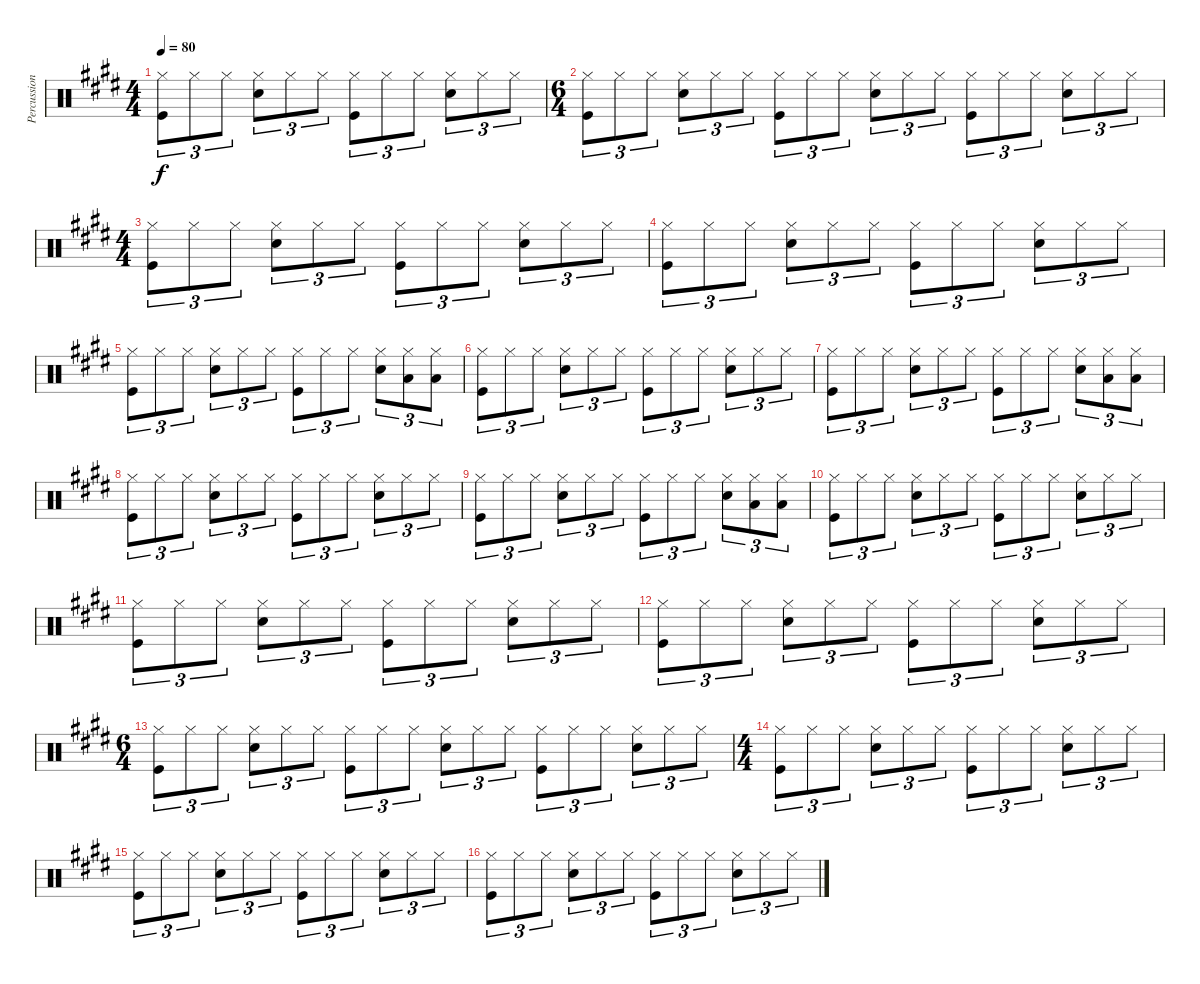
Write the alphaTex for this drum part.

\track ("Percussion" "Percussion") {instrument percussion}
\staff {score}
\articulation defaults
\ts (4 4)
\tempo 80
\clef neutral
\ks e
("Hi-Hat (closed)" "Kick (hit)").8{tu (3 2) dy f} "Hi-Hat (closed)".8{tu (3 2)} "Hi-Hat (closed)".8{tu (3 2)} ("Hi-Hat (closed)" "Snare (hit) 2").8{tu (3 2)} "Hi-Hat (closed)".8{tu (3 2)} "Hi-Hat (closed)".8{tu (3 2)} ("Hi-Hat (closed)" "Kick (hit)").8{tu (3 2)} "Hi-Hat (closed)".8{tu (3 2)} "Hi-Hat (closed)".8{tu (3 2)} ("Hi-Hat (closed)" "Snare (hit) 2").8{tu (3 2)} "Hi-Hat (closed)".8{tu (3 2)} "Hi-Hat (closed)".8{tu (3 2)} |
\ts (6 4)
("Hi-Hat (closed)" "Kick (hit)").8{tu (3 2)} "Hi-Hat (closed)".8{tu (3 2)} "Hi-Hat (closed)".8{tu (3 2)} ("Hi-Hat (closed)" "Snare (hit) 2").8{tu (3 2)} "Hi-Hat (closed)".8{tu (3 2)} "Hi-Hat (closed)".8{tu (3 2)} ("Hi-Hat (closed)" "Kick (hit)").8{tu (3 2)} "Hi-Hat (closed)".8{tu (3 2)} "Hi-Hat (closed)".8{tu (3 2)} ("Hi-Hat (closed)" "Snare (hit) 2").8{tu (3 2)} "Hi-Hat (closed)".8{tu (3 2)} "Hi-Hat (closed)".8{tu (3 2)} ("Hi-Hat (closed)" "Kick (hit)").8{tu (3 2)} "Hi-Hat (closed)".8{tu (3 2)} "Hi-Hat (closed)".8{tu (3 2)} ("Hi-Hat (closed)" "Snare (hit) 2").8{tu (3 2)} "Hi-Hat (closed)".8{tu (3 2)} "Hi-Hat (closed)".8{tu (3 2)} |
\ts (4 4)
("Hi-Hat (closed)" "Kick (hit)").8{tu (3 2)} "Hi-Hat (closed)".8{tu (3 2)} "Hi-Hat (closed)".8{tu (3 2)} ("Hi-Hat (closed)" "Snare (hit) 2").8{tu (3 2)} "Hi-Hat (closed)".8{tu (3 2)} "Hi-Hat (closed)".8{tu (3 2)} ("Hi-Hat (closed)" "Kick (hit)").8{tu (3 2)} "Hi-Hat (closed)".8{tu (3 2)} "Hi-Hat (closed)".8{tu (3 2)} ("Hi-Hat (closed)" "Snare (hit) 2").8{tu (3 2)} "Hi-Hat (closed)".8{tu (3 2)} "Hi-Hat (closed)".8{tu (3 2)} |
("Hi-Hat (closed)" "Kick (hit)").8{tu (3 2)} "Hi-Hat (closed)".8{tu (3 2)} "Hi-Hat (closed)".8{tu (3 2)} ("Hi-Hat (closed)" "Snare (hit) 2").8{tu (3 2)} "Hi-Hat (closed)".8{tu (3 2)} "Hi-Hat (closed)".8{tu (3 2)} ("Hi-Hat (closed)" "Kick (hit)").8{tu (3 2)} "Hi-Hat (closed)".8{tu (3 2)} "Hi-Hat (closed)".8{tu (3 2)} ("Hi-Hat (closed)" "Snare (hit) 2").8{tu (3 2)} "Hi-Hat (closed)".8{tu (3 2)} "Hi-Hat (closed)".8{tu (3 2)} |
("Hi-Hat (closed)" "Kick (hit)").8{tu (3 2)} "Hi-Hat (closed)".8{tu (3 2)} "Hi-Hat (closed)".8{tu (3 2)} ("Hi-Hat (closed)" "Snare (hit) 2").8{tu (3 2)} "Hi-Hat (closed)".8{tu (3 2)} "Hi-Hat (closed)".8{tu (3 2)} ("Hi-Hat (closed)" "Kick (hit)").8{tu (3 2)} "Hi-Hat (closed)".8{tu (3 2)} "Hi-Hat (closed)".8{tu (3 2)} ("Hi-Hat (closed)" "Snare (hit) 2").8{tu (3 2)} ("Hi-Hat (closed)" "Low Tom (hit)").8{tu (3 2)} ("Hi-Hat (closed)" "Low Tom (hit)").8{tu (3 2)} |
("Hi-Hat (closed)" "Kick (hit)").8{tu (3 2)} "Hi-Hat (closed)".8{tu (3 2)} "Hi-Hat (closed)".8{tu (3 2)} ("Hi-Hat (closed)" "Snare (hit) 2").8{tu (3 2)} "Hi-Hat (closed)".8{tu (3 2)} "Hi-Hat (closed)".8{tu (3 2)} ("Hi-Hat (closed)" "Kick (hit)").8{tu (3 2)} "Hi-Hat (closed)".8{tu (3 2)} "Hi-Hat (closed)".8{tu (3 2)} ("Hi-Hat (closed)" "Snare (hit) 2").8{tu (3 2)} "Hi-Hat (closed)".8{tu (3 2)} "Hi-Hat (closed)".8{tu (3 2)} |
("Hi-Hat (closed)" "Kick (hit)").8{tu (3 2)} "Hi-Hat (closed)".8{tu (3 2)} "Hi-Hat (closed)".8{tu (3 2)} ("Hi-Hat (closed)" "Snare (hit) 2").8{tu (3 2)} "Hi-Hat (closed)".8{tu (3 2)} "Hi-Hat (closed)".8{tu (3 2)} ("Hi-Hat (closed)" "Kick (hit)").8{tu (3 2)} "Hi-Hat (closed)".8{tu (3 2)} "Hi-Hat (closed)".8{tu (3 2)} ("Hi-Hat (closed)" "Snare (hit) 2").8{tu (3 2)} ("Hi-Hat (closed)" "Low Tom (hit)").8{tu (3 2)} ("Hi-Hat (closed)" "Low Tom (hit)").8{tu (3 2)} |
("Hi-Hat (closed)" "Kick (hit)").8{tu (3 2)} "Hi-Hat (closed)".8{tu (3 2)} "Hi-Hat (closed)".8{tu (3 2)} ("Hi-Hat (closed)" "Snare (hit) 2").8{tu (3 2)} "Hi-Hat (closed)".8{tu (3 2)} "Hi-Hat (closed)".8{tu (3 2)} ("Hi-Hat (closed)" "Kick (hit)").8{tu (3 2)} "Hi-Hat (closed)".8{tu (3 2)} "Hi-Hat (closed)".8{tu (3 2)} ("Hi-Hat (closed)" "Snare (hit) 2").8{tu (3 2)} "Hi-Hat (closed)".8{tu (3 2)} "Hi-Hat (closed)".8{tu (3 2)} |
("Hi-Hat (closed)" "Kick (hit)").8{tu (3 2)} "Hi-Hat (closed)".8{tu (3 2)} "Hi-Hat (closed)".8{tu (3 2)} ("Hi-Hat (closed)" "Snare (hit) 2").8{tu (3 2)} "Hi-Hat (closed)".8{tu (3 2)} "Hi-Hat (closed)".8{tu (3 2)} ("Hi-Hat (closed)" "Kick (hit)").8{tu (3 2)} "Hi-Hat (closed)".8{tu (3 2)} "Hi-Hat (closed)".8{tu (3 2)} ("Hi-Hat (closed)" "Snare (hit) 2").8{tu (3 2)} ("Hi-Hat (closed)" "Low Tom (hit)").8{tu (3 2)} ("Hi-Hat (closed)" "Low Tom (hit)").8{tu (3 2)} |
("Hi-Hat (closed)" "Kick (hit)").8{tu (3 2)} "Hi-Hat (closed)".8{tu (3 2)} "Hi-Hat (closed)".8{tu (3 2)} ("Hi-Hat (closed)" "Snare (hit) 2").8{tu (3 2)} "Hi-Hat (closed)".8{tu (3 2)} "Hi-Hat (closed)".8{tu (3 2)} ("Hi-Hat (closed)" "Kick (hit)").8{tu (3 2)} "Hi-Hat (closed)".8{tu (3 2)} "Hi-Hat (closed)".8{tu (3 2)} ("Hi-Hat (closed)" "Snare (hit) 2").8{tu (3 2)} "Hi-Hat (closed)".8{tu (3 2)} "Hi-Hat (closed)".8{tu (3 2)} |
("Hi-Hat (closed)" "Kick (hit)").8{tu (3 2)} "Hi-Hat (closed)".8{tu (3 2)} "Hi-Hat (closed)".8{tu (3 2)} ("Hi-Hat (closed)" "Snare (hit) 2").8{tu (3 2)} "Hi-Hat (closed)".8{tu (3 2)} "Hi-Hat (closed)".8{tu (3 2)} ("Hi-Hat (closed)" "Kick (hit)").8{tu (3 2)} "Hi-Hat (closed)".8{tu (3 2)} "Hi-Hat (closed)".8{tu (3 2)} ("Hi-Hat (closed)" "Snare (hit) 2").8{tu (3 2)} "Hi-Hat (closed)".8{tu (3 2)} "Hi-Hat (closed)".8{tu (3 2)} |
("Hi-Hat (closed)" "Kick (hit)").8{tu (3 2)} "Hi-Hat (closed)".8{tu (3 2)} "Hi-Hat (closed)".8{tu (3 2)} ("Hi-Hat (closed)" "Snare (hit) 2").8{tu (3 2)} "Hi-Hat (closed)".8{tu (3 2)} "Hi-Hat (closed)".8{tu (3 2)} ("Hi-Hat (closed)" "Kick (hit)").8{tu (3 2)} "Hi-Hat (closed)".8{tu (3 2)} "Hi-Hat (closed)".8{tu (3 2)} ("Hi-Hat (closed)" "Snare (hit) 2").8{tu (3 2)} "Hi-Hat (closed)".8{tu (3 2)} "Hi-Hat (closed)".8{tu (3 2)} |
\ts (6 4)
("Hi-Hat (closed)" "Kick (hit)").8{tu (3 2)} "Hi-Hat (closed)".8{tu (3 2)} "Hi-Hat (closed)".8{tu (3 2)} ("Hi-Hat (closed)" "Snare (hit) 2").8{tu (3 2)} "Hi-Hat (closed)".8{tu (3 2)} "Hi-Hat (closed)".8{tu (3 2)} ("Hi-Hat (closed)" "Kick (hit)").8{tu (3 2)} "Hi-Hat (closed)".8{tu (3 2)} "Hi-Hat (closed)".8{tu (3 2)} ("Hi-Hat (closed)" "Snare (hit) 2").8{tu (3 2)} "Hi-Hat (closed)".8{tu (3 2)} "Hi-Hat (closed)".8{tu (3 2)} ("Hi-Hat (closed)" "Kick (hit)").8{tu (3 2)} "Hi-Hat (closed)".8{tu (3 2)} "Hi-Hat (closed)".8{tu (3 2)} ("Hi-Hat (closed)" "Snare (hit) 2").8{tu (3 2)} "Hi-Hat (closed)".8{tu (3 2)} "Hi-Hat (closed)".8{tu (3 2)} |
\ts (4 4)
("Hi-Hat (closed)" "Kick (hit)").8{tu (3 2)} "Hi-Hat (closed)".8{tu (3 2)} "Hi-Hat (closed)".8{tu (3 2)} ("Hi-Hat (closed)" "Snare (hit) 2").8{tu (3 2)} "Hi-Hat (closed)".8{tu (3 2)} "Hi-Hat (closed)".8{tu (3 2)} ("Hi-Hat (closed)" "Kick (hit)").8{tu (3 2)} "Hi-Hat (closed)".8{tu (3 2)} "Hi-Hat (closed)".8{tu (3 2)} ("Hi-Hat (closed)" "Snare (hit) 2").8{tu (3 2)} "Hi-Hat (closed)".8{tu (3 2)} "Hi-Hat (closed)".8{tu (3 2)} |
("Hi-Hat (closed)" "Kick (hit)").8{tu (3 2)} "Hi-Hat (closed)".8{tu (3 2)} "Hi-Hat (closed)".8{tu (3 2)} ("Hi-Hat (closed)" "Snare (hit) 2").8{tu (3 2)} "Hi-Hat (closed)".8{tu (3 2)} "Hi-Hat (closed)".8{tu (3 2)} ("Hi-Hat (closed)" "Kick (hit)").8{tu (3 2)} "Hi-Hat (closed)".8{tu (3 2)} "Hi-Hat (closed)".8{tu (3 2)} ("Hi-Hat (closed)" "Snare (hit) 2").8{tu (3 2)} "Hi-Hat (closed)".8{tu (3 2)} "Hi-Hat (closed)".8{tu (3 2)} |
("Hi-Hat (closed)" "Kick (hit)").8{tu (3 2)} "Hi-Hat (closed)".8{tu (3 2)} "Hi-Hat (closed)".8{tu (3 2)} ("Hi-Hat (closed)" "Snare (hit) 2").8{tu (3 2)} "Hi-Hat (closed)".8{tu (3 2)} "Hi-Hat (closed)".8{tu (3 2)} ("Hi-Hat (closed)" "Kick (hit)").8{tu (3 2)} "Hi-Hat (closed)".8{tu (3 2)} "Hi-Hat (closed)".8{tu (3 2)} ("Hi-Hat (closed)" "Snare (hit) 2").8{tu (3 2)} "Hi-Hat (closed)".8{tu (3 2)} "Hi-Hat (closed)".8{tu (3 2)}
